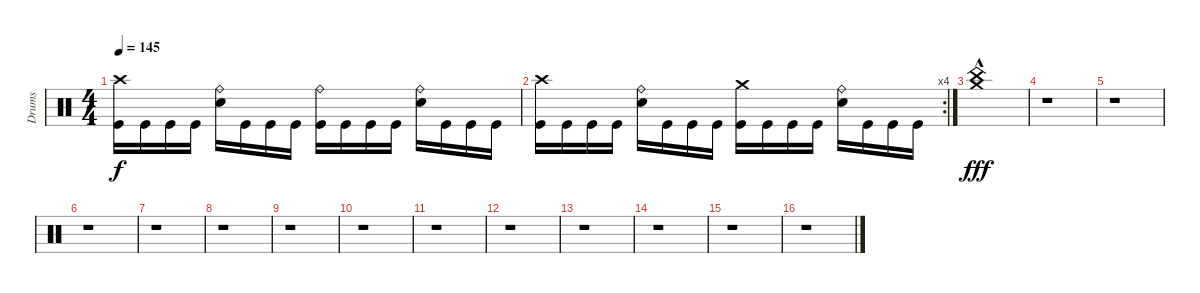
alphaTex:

\track ("Drums" "Drums") {instrument percussion}
\staff {score}
\articulation defaults
\ts (4 4)
\tempo 145
\clef neutral
\ks c
("Crash high (hit)" "Kick (hit)").16{dy f} "Kick (hit)".16 "Kick (hit)".16 "Kick (hit)".16 ("Ride (bell)" "Electric Snare (hit)").16 "Kick (hit)".16 "Kick (hit)".16 "Kick (hit)".16 ("Ride (bell)" "Kick (hit)").16 "Kick (hit)".16 "Kick (hit)".16 "Kick (hit)".16 ("Ride (bell)" "Electric Snare (hit)").16 "Kick (hit)".16 "Kick (hit)".16 "Kick (hit)".16 |
\rc 4
("Crash high (hit)" "Kick (hit)").16 "Kick (hit)".16 "Kick (hit)".16 "Kick (hit)".16 ("Ride (bell)" "Electric Snare (hit)").16 "Kick (hit)".16 "Kick (hit)".16 "Kick (hit)".16 ("Crash medium (hit)" "Kick (hit)").16 "Kick (hit)".16 "Kick (hit)".16 "Kick (hit)".16 ("Ride (bell)" "Electric Snare (hit)").16 "Kick (hit)".16 "Kick (hit)".16 "Kick (hit)".16 |
("Crash medium (hit)"{hac} "China (hit)"{hac}).1{dy fff} |
r.1 |
r.1 |
r.1 |
r.1 |
r.1 |
r.1 |
r.1 |
r.1 |
r.1 |
r.1 |
r.1 |
r.1 |
r.1
